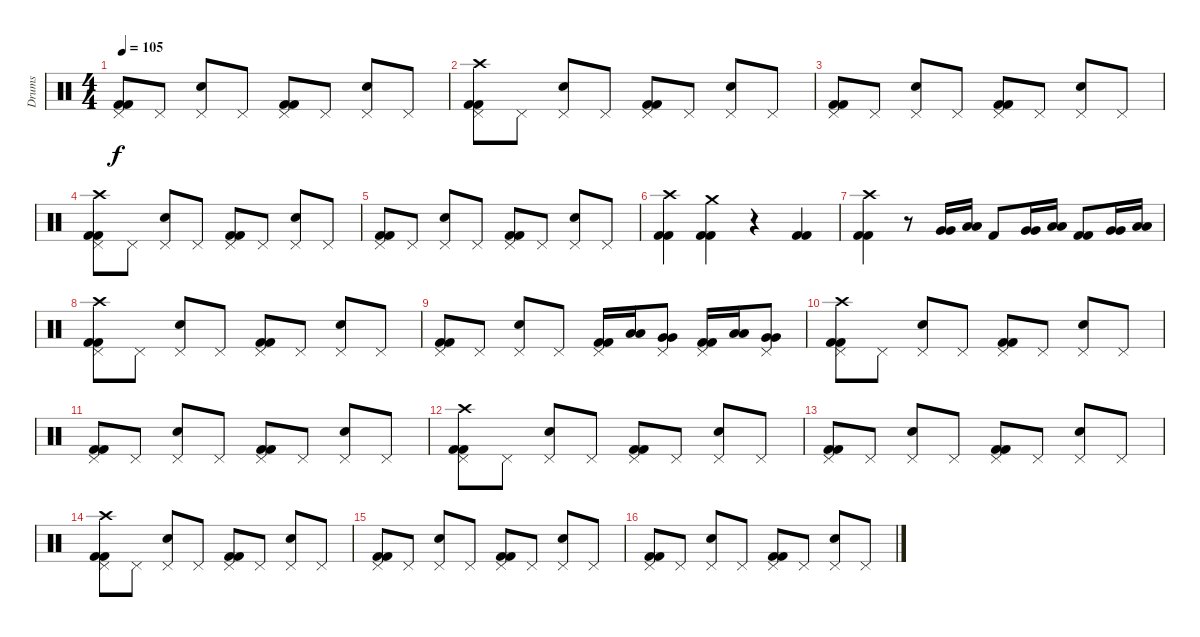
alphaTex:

\track ("Drums" "Drums") {instrument percussion}
\staff {score}
\articulation defaults
\ts (4 4)
\tempo 105
\clef neutral
\ks c
("Pedal Hi-Hat (hit)" "Kick (hit) 2" "Kick (hit) 2").8{dy f} "Pedal Hi-Hat (hit)".8 ("Pedal Hi-Hat (hit)" "Electric Snare (hit)").8 "Pedal Hi-Hat (hit)".8 ("Pedal Hi-Hat (hit)" "Kick (hit) 2" "Kick (hit) 2").8 "Pedal Hi-Hat (hit)".8 ("Pedal Hi-Hat (hit)" "Electric Snare (hit)").8 "Pedal Hi-Hat (hit)".8 |
("Pedal Hi-Hat (hit)" "Crash high (hit)" "Kick (hit) 2" "Kick (hit) 2").8 "Pedal Hi-Hat (hit)".8 ("Pedal Hi-Hat (hit)" "Electric Snare (hit)").8 "Pedal Hi-Hat (hit)".8 ("Pedal Hi-Hat (hit)" "Kick (hit) 2" "Kick (hit) 2").8 "Pedal Hi-Hat (hit)".8 ("Pedal Hi-Hat (hit)" "Electric Snare (hit)").8 "Pedal Hi-Hat (hit)".8 |
("Pedal Hi-Hat (hit)" "Kick (hit) 2" "Kick (hit) 2").8 "Pedal Hi-Hat (hit)".8 ("Pedal Hi-Hat (hit)" "Electric Snare (hit)").8 "Pedal Hi-Hat (hit)".8 ("Pedal Hi-Hat (hit)" "Kick (hit) 2" "Kick (hit) 2").8 "Pedal Hi-Hat (hit)".8 ("Pedal Hi-Hat (hit)" "Electric Snare (hit)").8 "Pedal Hi-Hat (hit)".8 |
("Pedal Hi-Hat (hit)" "Crash high (hit)" "Kick (hit) 2" "Kick (hit) 2").8 "Pedal Hi-Hat (hit)".8 ("Pedal Hi-Hat (hit)" "Electric Snare (hit)").8 "Pedal Hi-Hat (hit)".8 ("Pedal Hi-Hat (hit)" "Kick (hit) 2" "Kick (hit) 2").8 "Pedal Hi-Hat (hit)".8 ("Pedal Hi-Hat (hit)" "Electric Snare (hit)").8 "Pedal Hi-Hat (hit)".8 |
("Pedal Hi-Hat (hit)" "Kick (hit) 2" "Kick (hit) 2").8 "Pedal Hi-Hat (hit)".8 ("Pedal Hi-Hat (hit)" "Electric Snare (hit)").8 "Pedal Hi-Hat (hit)".8 ("Pedal Hi-Hat (hit)" "Kick (hit) 2" "Kick (hit) 2").8 "Pedal Hi-Hat (hit)".8 ("Pedal Hi-Hat (hit)" "Electric Snare (hit)").8 "Pedal Hi-Hat (hit)".8 |
("Crash high (hit)" "Kick (hit) 2" "Kick (hit) 2").4 ("Crash medium (hit)" "Kick (hit) 2" "Kick (hit) 2").4 r.4 ("Kick (hit) 2" "Kick (hit) 2").4 |
("Crash high (hit)" "Kick (hit) 2" "Kick (hit) 2").4 r.8 ("Very Low Tom (hit)" "Very Low Tom (hit)").16 ("Low Floor Tom (hit)" "Low Floor Tom (hit)").16 "Kick (hit) 2".8 ("Very Low Tom (hit)" "Very Low Tom (hit)").16 ("Low Floor Tom (hit)" "Low Floor Tom (hit)").16 ("Kick (hit) 2" "Kick (hit) 2").8 ("Very Low Tom (hit)" "Very Low Tom (hit)").16 ("Low Floor Tom (hit)" "Low Floor Tom (hit)").16 |
("Pedal Hi-Hat (hit)" "Crash high (hit)" "Kick (hit) 2" "Kick (hit) 2").8 "Pedal Hi-Hat (hit)".8 ("Pedal Hi-Hat (hit)" "Electric Snare (hit)").8 "Pedal Hi-Hat (hit)".8 ("Pedal Hi-Hat (hit)" "Kick (hit) 2" "Kick (hit) 2").8 "Pedal Hi-Hat (hit)".8 ("Pedal Hi-Hat (hit)" "Electric Snare (hit)").8 "Pedal Hi-Hat (hit)".8 |
("Pedal Hi-Hat (hit)" "Kick (hit) 2" "Kick (hit) 2").8 "Pedal Hi-Hat (hit)".8 ("Pedal Hi-Hat (hit)" "Electric Snare (hit)").8 "Pedal Hi-Hat (hit)".8 ("Pedal Hi-Hat (hit)" "Kick (hit) 2" "Kick (hit) 2").16 ("Low Floor Tom (hit)" "Low Floor Tom (hit)").16 ("Pedal Hi-Hat (hit)" "Very Low Tom (hit)" "Very Low Tom (hit)").8 ("Pedal Hi-Hat (hit)" "Kick (hit) 2" "Kick (hit) 2").16 ("Low Floor Tom (hit)" "Low Floor Tom (hit)").16 ("Pedal Hi-Hat (hit)" "Very Low Tom (hit)" "Very Low Tom (hit)").8 |
("Pedal Hi-Hat (hit)" "Crash high (hit)" "Kick (hit) 2" "Kick (hit) 2").8 "Pedal Hi-Hat (hit)".8 ("Pedal Hi-Hat (hit)" "Electric Snare (hit)").8 "Pedal Hi-Hat (hit)".8 ("Pedal Hi-Hat (hit)" "Kick (hit) 2" "Kick (hit) 2").8 "Pedal Hi-Hat (hit)".8 ("Pedal Hi-Hat (hit)" "Electric Snare (hit)").8 "Pedal Hi-Hat (hit)".8 |
("Pedal Hi-Hat (hit)" "Kick (hit) 2" "Kick (hit) 2").8 "Pedal Hi-Hat (hit)".8 ("Pedal Hi-Hat (hit)" "Electric Snare (hit)").8 "Pedal Hi-Hat (hit)".8 ("Pedal Hi-Hat (hit)" "Kick (hit) 2" "Kick (hit) 2").8 "Pedal Hi-Hat (hit)".8 ("Pedal Hi-Hat (hit)" "Electric Snare (hit)").8 "Pedal Hi-Hat (hit)".8 |
("Pedal Hi-Hat (hit)" "Crash high (hit)" "Kick (hit) 2" "Kick (hit) 2").8 "Pedal Hi-Hat (hit)".8 ("Pedal Hi-Hat (hit)" "Electric Snare (hit)").8 "Pedal Hi-Hat (hit)".8 ("Pedal Hi-Hat (hit)" "Kick (hit) 2" "Kick (hit) 2").8 "Pedal Hi-Hat (hit)".8 ("Pedal Hi-Hat (hit)" "Electric Snare (hit)").8 "Pedal Hi-Hat (hit)".8 |
("Pedal Hi-Hat (hit)" "Kick (hit) 2" "Kick (hit) 2").8 "Pedal Hi-Hat (hit)".8 ("Pedal Hi-Hat (hit)" "Electric Snare (hit)").8 "Pedal Hi-Hat (hit)".8 ("Pedal Hi-Hat (hit)" "Kick (hit) 2" "Kick (hit) 2").8 "Pedal Hi-Hat (hit)".8 ("Pedal Hi-Hat (hit)" "Electric Snare (hit)").8 "Pedal Hi-Hat (hit)".8 |
("Pedal Hi-Hat (hit)" "Crash high (hit)" "Kick (hit) 2" "Kick (hit) 2").8 "Pedal Hi-Hat (hit)".8 ("Pedal Hi-Hat (hit)" "Electric Snare (hit)").8 "Pedal Hi-Hat (hit)".8 ("Pedal Hi-Hat (hit)" "Kick (hit) 2" "Kick (hit) 2").8 "Pedal Hi-Hat (hit)".8 ("Pedal Hi-Hat (hit)" "Electric Snare (hit)").8 "Pedal Hi-Hat (hit)".8 |
("Pedal Hi-Hat (hit)" "Kick (hit) 2" "Kick (hit) 2").8 "Pedal Hi-Hat (hit)".8 ("Pedal Hi-Hat (hit)" "Electric Snare (hit)").8 "Pedal Hi-Hat (hit)".8 ("Pedal Hi-Hat (hit)" "Kick (hit) 2" "Kick (hit) 2").8 "Pedal Hi-Hat (hit)".8 ("Pedal Hi-Hat (hit)" "Electric Snare (hit)").8 "Pedal Hi-Hat (hit)".8 |
("Pedal Hi-Hat (hit)" "Kick (hit) 2" "Kick (hit) 2").8 "Pedal Hi-Hat (hit)".8 ("Pedal Hi-Hat (hit)" "Electric Snare (hit)").8 "Pedal Hi-Hat (hit)".8 ("Pedal Hi-Hat (hit)" "Kick (hit) 2" "Kick (hit) 2").8 "Pedal Hi-Hat (hit)".8 ("Pedal Hi-Hat (hit)" "Electric Snare (hit)").8 "Pedal Hi-Hat (hit)".8
